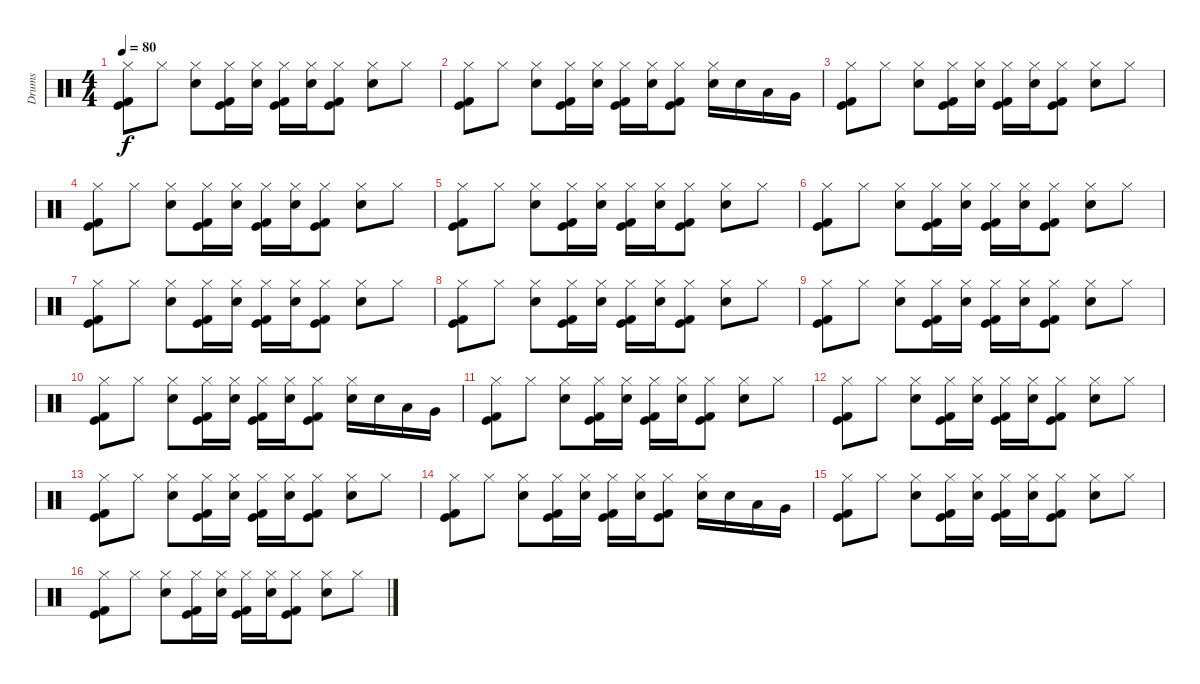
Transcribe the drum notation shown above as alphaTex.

\track ("Drums" "Drums") {instrument percussion}
\staff {score}
\articulation defaults
\ts (4 4)
\tempo 80
\clef neutral
\ks c
("Hi-Hat (closed)" "Kick (hit)" "Kick (hit) 2").8{dy f} "Hi-Hat (closed)".8 ("Hi-Hat (closed)" "Snare (hit) 2").8 ("Hi-Hat (closed)" "Kick (hit)" "Kick (hit) 2").16 ("Hi-Hat (closed)" "Snare (hit) 2").16 ("Hi-Hat (closed)" "Kick (hit)" "Kick (hit) 2").16 ("Hi-Hat (closed)" "Snare (hit) 2").16 ("Hi-Hat (closed)" "Kick (hit)" "Kick (hit) 2").8 ("Hi-Hat (closed)" "Snare (hit) 2").8 "Hi-Hat (closed)".8 |
("Hi-Hat (closed)" "Kick (hit)" "Kick (hit) 2").8 "Hi-Hat (closed)".8 ("Hi-Hat (closed)" "Snare (hit) 2").8 ("Hi-Hat (closed)" "Kick (hit)" "Kick (hit) 2").16 ("Hi-Hat (closed)" "Snare (hit) 2").16 ("Hi-Hat (closed)" "Kick (hit)" "Kick (hit) 2").16 ("Hi-Hat (closed)" "Snare (hit) 2").16 ("Hi-Hat (closed)" "Kick (hit)" "Kick (hit) 2").8 ("Hi-Hat (closed)" "Snare (hit) 2").16 "Snare (hit) 2".16 "Low Tom (hit)".16 "Very Low Tom (hit)".16 |
("Hi-Hat (closed)" "Kick (hit)" "Kick (hit) 2").8 "Hi-Hat (closed)".8 ("Hi-Hat (closed)" "Snare (hit) 2").8 ("Hi-Hat (closed)" "Kick (hit)" "Kick (hit) 2").16 ("Hi-Hat (closed)" "Snare (hit) 2").16 ("Hi-Hat (closed)" "Kick (hit)" "Kick (hit) 2").16 ("Hi-Hat (closed)" "Snare (hit) 2").16 ("Hi-Hat (closed)" "Kick (hit)" "Kick (hit) 2").8 ("Hi-Hat (closed)" "Snare (hit) 2").8 "Hi-Hat (closed)".8 |
("Hi-Hat (closed)" "Kick (hit)" "Kick (hit) 2").8 "Hi-Hat (closed)".8 ("Hi-Hat (closed)" "Snare (hit) 2").8 ("Hi-Hat (closed)" "Kick (hit)" "Kick (hit) 2").16 ("Hi-Hat (closed)" "Snare (hit) 2").16 ("Hi-Hat (closed)" "Kick (hit)" "Kick (hit) 2").16 ("Hi-Hat (closed)" "Snare (hit) 2").16 ("Hi-Hat (closed)" "Kick (hit)" "Kick (hit) 2").8 ("Hi-Hat (closed)" "Snare (hit) 2").8 "Hi-Hat (closed)".8 |
("Hi-Hat (closed)" "Kick (hit)" "Kick (hit) 2").8 "Hi-Hat (closed)".8 ("Hi-Hat (closed)" "Snare (hit) 2").8 ("Hi-Hat (closed)" "Kick (hit)" "Kick (hit) 2").16 ("Hi-Hat (closed)" "Snare (hit) 2").16 ("Hi-Hat (closed)" "Kick (hit)" "Kick (hit) 2").16 ("Hi-Hat (closed)" "Snare (hit) 2").16 ("Hi-Hat (closed)" "Kick (hit)" "Kick (hit) 2").8 ("Hi-Hat (closed)" "Snare (hit) 2").8 "Hi-Hat (closed)".8 |
("Hi-Hat (closed)" "Kick (hit)" "Kick (hit) 2").8 "Hi-Hat (closed)".8 ("Hi-Hat (closed)" "Snare (hit) 2").8 ("Hi-Hat (closed)" "Kick (hit)" "Kick (hit) 2").16 ("Hi-Hat (closed)" "Snare (hit) 2").16 ("Hi-Hat (closed)" "Kick (hit)" "Kick (hit) 2").16 ("Hi-Hat (closed)" "Snare (hit) 2").16 ("Hi-Hat (closed)" "Kick (hit)" "Kick (hit) 2").8 ("Hi-Hat (closed)" "Snare (hit) 2").8 "Hi-Hat (closed)".8 |
("Hi-Hat (closed)" "Kick (hit)" "Kick (hit) 2").8 "Hi-Hat (closed)".8 ("Hi-Hat (closed)" "Snare (hit) 2").8 ("Hi-Hat (closed)" "Kick (hit)" "Kick (hit) 2").16 ("Hi-Hat (closed)" "Snare (hit) 2").16 ("Hi-Hat (closed)" "Kick (hit)" "Kick (hit) 2").16 ("Hi-Hat (closed)" "Snare (hit) 2").16 ("Hi-Hat (closed)" "Kick (hit)" "Kick (hit) 2").8 ("Hi-Hat (closed)" "Snare (hit) 2").8 "Hi-Hat (closed)".8 |
("Hi-Hat (closed)" "Kick (hit)" "Kick (hit) 2").8 "Hi-Hat (closed)".8 ("Hi-Hat (closed)" "Snare (hit) 2").8 ("Hi-Hat (closed)" "Kick (hit)" "Kick (hit) 2").16 ("Hi-Hat (closed)" "Snare (hit) 2").16 ("Hi-Hat (closed)" "Kick (hit)" "Kick (hit) 2").16 ("Hi-Hat (closed)" "Snare (hit) 2").16 ("Hi-Hat (closed)" "Kick (hit)" "Kick (hit) 2").8 ("Hi-Hat (closed)" "Snare (hit) 2").8 "Hi-Hat (closed)".8 |
("Hi-Hat (closed)" "Kick (hit)" "Kick (hit) 2").8 "Hi-Hat (closed)".8 ("Hi-Hat (closed)" "Snare (hit) 2").8 ("Hi-Hat (closed)" "Kick (hit)" "Kick (hit) 2").16 ("Hi-Hat (closed)" "Snare (hit) 2").16 ("Hi-Hat (closed)" "Kick (hit)" "Kick (hit) 2").16 ("Hi-Hat (closed)" "Snare (hit) 2").16 ("Hi-Hat (closed)" "Kick (hit)" "Kick (hit) 2").8 ("Hi-Hat (closed)" "Snare (hit) 2").8 "Hi-Hat (closed)".8 |
("Hi-Hat (closed)" "Kick (hit)" "Kick (hit) 2").8 "Hi-Hat (closed)".8 ("Hi-Hat (closed)" "Snare (hit) 2").8 ("Hi-Hat (closed)" "Kick (hit)" "Kick (hit) 2").16 ("Hi-Hat (closed)" "Snare (hit) 2").16 ("Hi-Hat (closed)" "Kick (hit)" "Kick (hit) 2").16 ("Hi-Hat (closed)" "Snare (hit) 2").16 ("Hi-Hat (closed)" "Kick (hit)" "Kick (hit) 2").8 ("Hi-Hat (closed)" "Snare (hit) 2").16 "Snare (hit) 2".16 "Low Tom (hit)".16 "Very Low Tom (hit)".16 |
("Hi-Hat (closed)" "Kick (hit)" "Kick (hit) 2").8 "Hi-Hat (closed)".8 ("Hi-Hat (closed)" "Snare (hit) 2").8 ("Hi-Hat (closed)" "Kick (hit)" "Kick (hit) 2").16 ("Hi-Hat (closed)" "Snare (hit) 2").16 ("Hi-Hat (closed)" "Kick (hit)" "Kick (hit) 2").16 ("Hi-Hat (closed)" "Snare (hit) 2").16 ("Hi-Hat (closed)" "Kick (hit)" "Kick (hit) 2").8 ("Hi-Hat (closed)" "Snare (hit) 2").8 "Hi-Hat (closed)".8 |
("Hi-Hat (closed)" "Kick (hit)" "Kick (hit) 2").8 "Hi-Hat (closed)".8 ("Hi-Hat (closed)" "Snare (hit) 2").8 ("Hi-Hat (closed)" "Kick (hit)" "Kick (hit) 2").16 ("Hi-Hat (closed)" "Snare (hit) 2").16 ("Hi-Hat (closed)" "Kick (hit)" "Kick (hit) 2").16 ("Hi-Hat (closed)" "Snare (hit) 2").16 ("Hi-Hat (closed)" "Kick (hit)" "Kick (hit) 2").8 ("Hi-Hat (closed)" "Snare (hit) 2").8 "Hi-Hat (closed)".8 |
("Hi-Hat (closed)" "Kick (hit)" "Kick (hit) 2").8 "Hi-Hat (closed)".8 ("Hi-Hat (closed)" "Snare (hit) 2").8 ("Hi-Hat (closed)" "Kick (hit)" "Kick (hit) 2").16 ("Hi-Hat (closed)" "Snare (hit) 2").16 ("Hi-Hat (closed)" "Kick (hit)" "Kick (hit) 2").16 ("Hi-Hat (closed)" "Snare (hit) 2").16 ("Hi-Hat (closed)" "Kick (hit)" "Kick (hit) 2").8 ("Hi-Hat (closed)" "Snare (hit) 2").8 "Hi-Hat (closed)".8 |
("Hi-Hat (closed)" "Kick (hit)" "Kick (hit) 2").8 "Hi-Hat (closed)".8 ("Hi-Hat (closed)" "Snare (hit) 2").8 ("Hi-Hat (closed)" "Kick (hit)" "Kick (hit) 2").16 ("Hi-Hat (closed)" "Snare (hit) 2").16 ("Hi-Hat (closed)" "Kick (hit)" "Kick (hit) 2").16 ("Hi-Hat (closed)" "Snare (hit) 2").16 ("Hi-Hat (closed)" "Kick (hit)" "Kick (hit) 2").8 ("Hi-Hat (closed)" "Snare (hit) 2").16 "Snare (hit) 2".16 "Low Tom (hit)".16 "Very Low Tom (hit)".16 |
("Hi-Hat (closed)" "Kick (hit)" "Kick (hit) 2").8 "Hi-Hat (closed)".8 ("Hi-Hat (closed)" "Snare (hit) 2").8 ("Hi-Hat (closed)" "Kick (hit)" "Kick (hit) 2").16 ("Hi-Hat (closed)" "Snare (hit) 2").16 ("Hi-Hat (closed)" "Kick (hit)" "Kick (hit) 2").16 ("Hi-Hat (closed)" "Snare (hit) 2").16 ("Hi-Hat (closed)" "Kick (hit)" "Kick (hit) 2").8 ("Hi-Hat (closed)" "Snare (hit) 2").8 "Hi-Hat (closed)".8 |
("Hi-Hat (closed)" "Kick (hit)" "Kick (hit) 2").8 "Hi-Hat (closed)".8 ("Hi-Hat (closed)" "Snare (hit) 2").8 ("Hi-Hat (closed)" "Kick (hit)" "Kick (hit) 2").16 ("Hi-Hat (closed)" "Snare (hit) 2").16 ("Hi-Hat (closed)" "Kick (hit)" "Kick (hit) 2").16 ("Hi-Hat (closed)" "Snare (hit) 2").16 ("Hi-Hat (closed)" "Kick (hit)" "Kick (hit) 2").8 ("Hi-Hat (closed)" "Snare (hit) 2").8 "Hi-Hat (closed)".8
